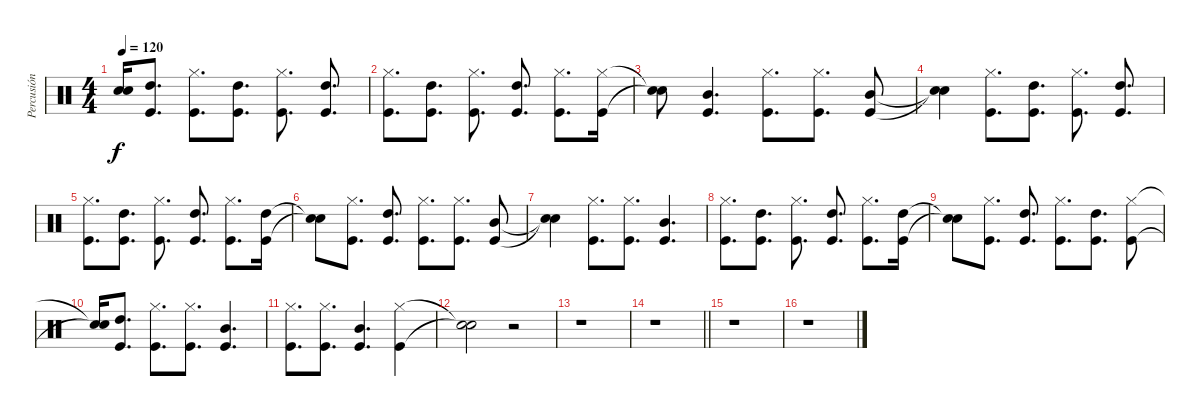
\track ("Percusión" "Percusión") {instrument percussion}
\staff {score}
\articulation defaults
\ts (4 4)
\tempo 120
\clef neutral
\ks c
("Snare (hit)"{t} "Snare (hit)"{t}).16{dy f} ("High Tom (hit)" "Kick (hit)").8{d} ("Hi-Hat (closed)" "Kick (hit)").8{d} ("High Tom (hit)" "Kick (hit)").8{d} ("Hi-Hat (closed)" "Kick (hit)").8{d} ("High Tom (hit)" "Kick (hit)").8{d} |
("Hi-Hat (closed)" "Kick (hit)").8{d} ("High Tom (hit)" "Kick (hit)").8{d} ("Hi-Hat (closed)" "Kick (hit)").8{d} ("High Tom (hit)" "Kick (hit)").8{d} ("Hi-Hat (closed)" "Kick (hit)").8{d} ("Hi-Hat (closed)" "Kick (hit)").16 |
("Snare (hit)"{t} "Snare (hit)"{t}).8 ("Mid Tom (hit)" "Kick (hit)").4{d} ("Hi-Hat (closed)" "Kick (hit)").8{d} ("Hi-Hat (closed)" "Kick (hit)").8{d} ("Mid Tom (hit)" "Kick (hit)").8 |
("Snare (hit)"{t} "Snare (hit)"{t}).4 ("Hi-Hat (closed)" "Kick (hit)").8{d} ("High Tom (hit)" "Kick (hit)").8{d} ("Hi-Hat (closed)" "Kick (hit)").8{d} ("High Tom (hit)" "Kick (hit)").8{d} |
("Hi-Hat (closed)" "Kick (hit)").8{d} ("High Tom (hit)" "Kick (hit)").8{d} ("Hi-Hat (closed)" "Kick (hit)").8{d} ("High Tom (hit)" "Kick (hit)").8{d} ("Hi-Hat (closed)" "Kick (hit)").8{d} ("High Tom (hit)" "Kick (hit)").16 |
("Snare (hit)"{t} "Snare (hit)"{t}).8 ("Hi-Hat (closed)" "Kick (hit)").8{d} ("High Tom (hit)" "Kick (hit)").8{d} ("Hi-Hat (closed)" "Kick (hit)").8{d} ("Hi-Hat (closed)" "Kick (hit)").8{d} ("Mid Tom (hit)" "Kick (hit)").8 |
("Snare (hit)"{t} "Snare (hit)"{t}).4 ("Hi-Hat (closed)" "Kick (hit)").8{d} ("Hi-Hat (closed)" "Kick (hit)").8{d} ("Mid Tom (hit)" "Kick (hit)").4{d} |
("Hi-Hat (closed)" "Kick (hit)").8{d} ("High Tom (hit)" "Kick (hit)").8{d} ("Hi-Hat (closed)" "Kick (hit)").8{d} ("High Tom (hit)" "Kick (hit)").8{d} ("Hi-Hat (closed)" "Kick (hit)").8{d} ("High Tom (hit)" "Kick (hit)").16 |
("Snare (hit)"{t} "Snare (hit)"{t}).8 ("Hi-Hat (closed)" "Kick (hit)").8{d} ("High Tom (hit)" "Kick (hit)").8{d} ("Hi-Hat (closed)" "Kick (hit)").8{d} ("High Tom (hit)" "Kick (hit)").8{d} ("Hi-Hat (closed)" "Kick (hit)").8 |
("Snare (hit)"{t} "Snare (hit)"{t}).16 ("High Tom (hit)" "Kick (hit)").8{d} ("Hi-Hat (closed)" "Kick (hit)").8{d} ("Hi-Hat (closed)" "Kick (hit)").8{d} ("Mid Tom (hit)" "Kick (hit)").4{d} |
("Hi-Hat (closed)" "Kick (hit)").8{d} ("Hi-Hat (closed)" "Kick (hit)").8{d} ("Mid Tom (hit)" "Kick (hit)").4{d} ("Hi-Hat (closed)" "Kick (hit)").4 |
("Snare (hit)"{t} "Snare (hit)"{t}).2 r.2 |
r.1 |
\barLineRight lightlight
r.1 |
\section ("" "")
r.1 |
r.1
